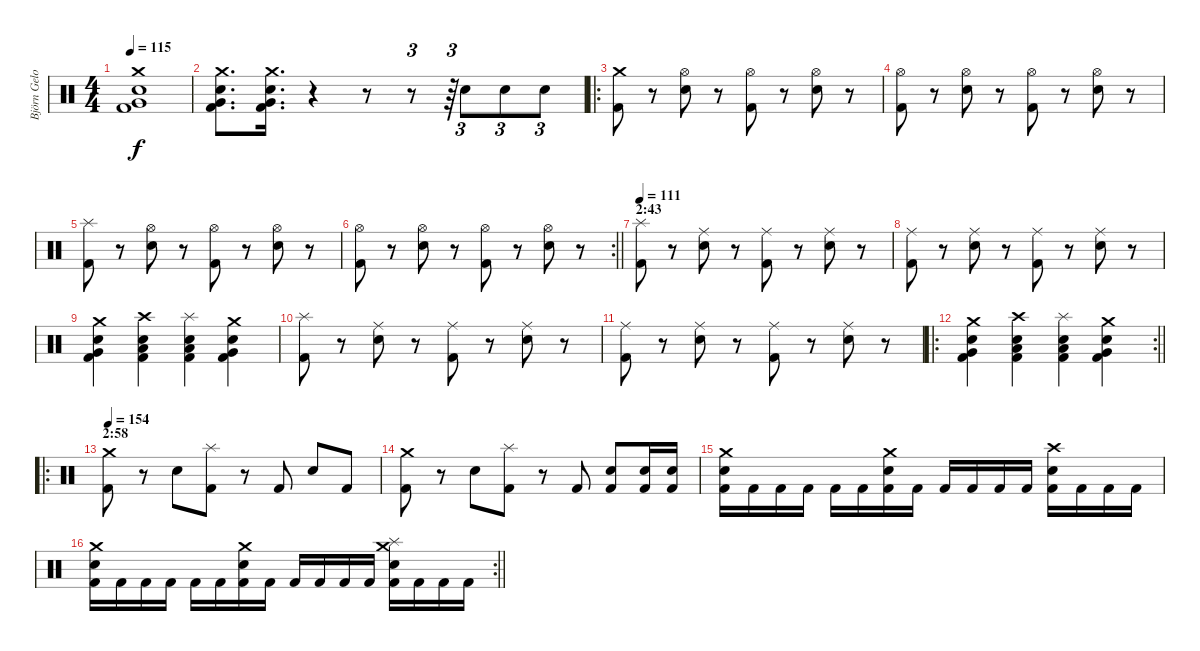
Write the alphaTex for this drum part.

\track ("Björn Gelotte" "Björn Gelo") {instrument percussion}
\staff {score}
\articulation defaults
\ts (4 4)
\tempo 115
\clef neutral
\ks c
("Crash medium (hit)" "Electric Snare (hit)" "Very Low Tom (hit)" "Kick (hit) 2").1{dy f} |
("Crash medium (hit)" "Electric Snare (hit)" "Very Low Tom (hit)" "Kick (hit) 2").8{d} ("Crash medium (hit)" "Electric Snare (hit)" "Very Low Tom (hit)" "Kick (hit) 2").16{d} r.4 r.8 r.8{tu (3 2)} r.64{tu (3 2)} "Electric Snare (hit)".8{tu (3 2)} "Electric Snare (hit)".8{tu (3 2)} "Electric Snare (hit)".8{tu (3 2)} |
\ro
("Crash medium (hit)" "Kick (hit) 2").8 r.8 ("Hi-Hat (open)" "Electric Snare (hit)").8 r.8 ("Hi-Hat (open)" "Kick (hit) 2").8 r.8 ("Hi-Hat (open)" "Electric Snare (hit)").8 r.8 |
("Hi-Hat (open)" "Kick (hit) 2").8 r.8 ("Hi-Hat (open)" "Electric Snare (hit)").8 r.8 ("Hi-Hat (open)" "Kick (hit) 2").8 r.8 ("Hi-Hat (open)" "Electric Snare (hit)").8 r.8 |
("Splash (hit)" "Kick (hit) 2").8 r.8 ("Hi-Hat (open)" "Electric Snare (hit)").8 r.8 ("Hi-Hat (open)" "Kick (hit) 2").8 r.8 ("Hi-Hat (open)" "Electric Snare (hit)").8 r.8 |
\rc 2
\barLineRight lightlight
("Hi-Hat (open)" "Kick (hit) 2").8 r.8 ("Hi-Hat (open)" "Electric Snare (hit)").8 r.8 ("Hi-Hat (open)" "Kick (hit) 2").8 r.8 ("Hi-Hat (open)" "Electric Snare (hit)").8 r.8 |
\section ("" "2:43")
\tempo 111
("Splash (hit)" "Kick (hit) 2").8 r.8 ("Ride (middle)" "Electric Snare (hit)").8 r.8 ("Ride (middle)" "Kick (hit) 2").8 r.8 ("Ride (middle)" "Electric Snare (hit)").8 r.8 |
("Ride (middle)" "Kick (hit) 2").8 r.8 ("Ride (middle)" "Electric Snare (hit)").8 r.8 ("Ride (middle)" "Kick (hit) 2").8 r.8 ("Ride (middle)" "Electric Snare (hit)").8 r.8 |
("Crash medium (hit)" "Electric Snare (hit)" "Very Low Tom (hit)" "Kick (hit) 2").4 ("Crash high (hit)" "Electric Snare (hit)" "Low Floor Tom (hit)" "Kick (hit) 2").4 ("Splash (hit)" "Electric Snare (hit)" "Low Tom (hit)" "Kick (hit) 2").4 ("Crash medium (hit)" "Electric Snare (hit)" "Very Low Tom (hit)" "Kick (hit) 2").4 |
("Splash (hit)" "Kick (hit) 2").8 r.8 ("Ride (middle)" "Electric Snare (hit)").8 r.8 ("Ride (middle)" "Kick (hit) 2").8 r.8 ("Ride (middle)" "Electric Snare (hit)").8 r.8 |
("Ride (middle)" "Kick (hit) 2").8 r.8 ("Ride (middle)" "Electric Snare (hit)").8 r.8 ("Ride (middle)" "Kick (hit) 2").8 r.8 ("Ride (middle)" "Electric Snare (hit)").8 r.8 |
\ro
\rc 2
\barLineRight lightlight
("Crash medium (hit)" "Electric Snare (hit)" "Very Low Tom (hit)" "Kick (hit) 2").4 ("Crash high (hit)" "Electric Snare (hit)" "Low Floor Tom (hit)" "Kick (hit) 2").4 ("Splash (hit)" "Electric Snare (hit)" "Low Tom (hit)" "Kick (hit) 2").4 ("Crash medium (hit)" "Electric Snare (hit)" "Very Low Tom (hit)" "Kick (hit) 2").4 |
\ro
\section ("" "2:58")
\tempo 154
("Crash medium (hit)" "Kick (hit) 2").8 r.8 "Electric Snare (hit)".8 ("Splash (hit)" "Kick (hit) 2").8 r.8 "Kick (hit) 2".8 "Electric Snare (hit)".8 "Kick (hit) 2".8 |
("Crash medium (hit)" "Kick (hit) 2").8 r.8 "Electric Snare (hit)".8 ("Splash (hit)" "Kick (hit) 2").8 r.8 "Kick (hit) 2".8 ("Electric Snare (hit)" "Kick (hit) 2").8 ("Electric Snare (hit)" "Kick (hit) 2").16 ("Electric Snare (hit)" "Kick (hit) 2").16 |
("Crash medium (hit)" "Electric Snare (hit)" "Kick (hit) 2").16 "Kick (hit) 2".16 "Kick (hit) 2".16 "Kick (hit) 2".16 "Kick (hit) 2".16 "Kick (hit) 2".16 ("Crash medium (hit)" "Electric Snare (hit)" "Kick (hit) 2").16 "Kick (hit) 2".16 "Kick (hit) 2".16 "Kick (hit) 2".16 "Kick (hit) 2".16 "Kick (hit) 2".16 ("Crash high (hit)" "Electric Snare (hit)" "Kick (hit) 2").16 "Kick (hit) 2".16 "Kick (hit) 2".16 "Kick (hit) 2".16 |
\rc 2
\barLineRight lightlight
("Crash medium (hit)" "Electric Snare (hit)" "Kick (hit) 2").16 "Kick (hit) 2".16 "Kick (hit) 2".16 "Kick (hit) 2".16 "Kick (hit) 2".16 "Kick (hit) 2".16 ("Crash medium (hit)" "Electric Snare (hit)" "Kick (hit) 2").16 "Kick (hit) 2".16 "Kick (hit) 2".16 "Kick (hit) 2".16 "Kick (hit) 2".16 "Kick (hit) 2".16 ("Crash medium (hit)" "Splash (hit)" "Electric Snare (hit)" "Kick (hit) 2").16 "Kick (hit) 2".16 "Kick (hit) 2".16 "Kick (hit) 2".16
